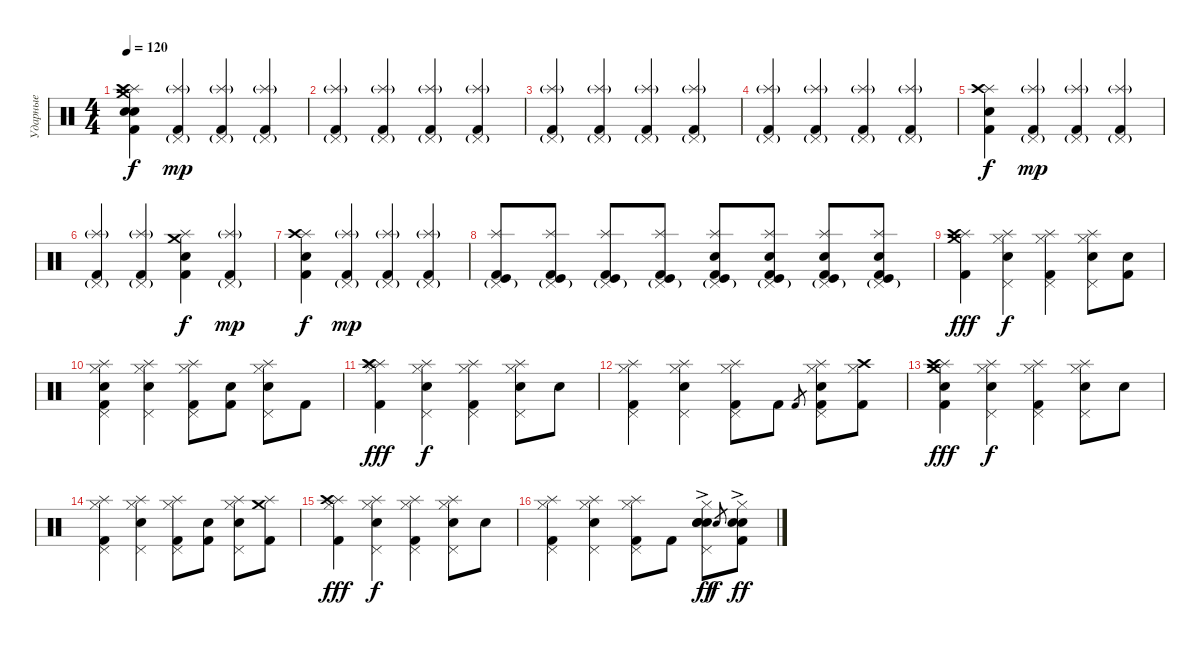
\track ("Ударные" "Ударные") {instrument percussion bank 2}
\staff {score}
\articulation defaults
\ts (4 4)
\tempo 120
\clef neutral
\ks c
("Kick (hit) 2" "Snare (hit)" "Splash (hit)" "Crash high (hit)" "Crash medium (hit)" "Snare (hit)").4{dy f} ("Kick (hit) 2" "Pedal Hi-Hat (hit)"{g} "Splash (hit)"{g}).4{dy mp} ("Kick (hit) 2" "Pedal Hi-Hat (hit)"{g} "Splash (hit)"{g}).4 ("Kick (hit) 2" "Pedal Hi-Hat (hit)"{g} "Splash (hit)"{g}).4 |
("Kick (hit) 2" "Pedal Hi-Hat (hit)"{g} "Splash (hit)"{g}).4 ("Kick (hit) 2" "Pedal Hi-Hat (hit)"{g} "Splash (hit)"{g}).4 ("Kick (hit) 2" "Pedal Hi-Hat (hit)"{g} "Splash (hit)"{g}).4 ("Kick (hit) 2" "Pedal Hi-Hat (hit)"{g} "Splash (hit)"{g}).4 |
("Kick (hit) 2" "Pedal Hi-Hat (hit)"{g} "Splash (hit)"{g}).4 ("Kick (hit) 2" "Pedal Hi-Hat (hit)"{g} "Splash (hit)"{g}).4 ("Kick (hit) 2" "Pedal Hi-Hat (hit)"{g} "Splash (hit)"{g}).4 ("Kick (hit) 2" "Pedal Hi-Hat (hit)"{g} "Splash (hit)"{g}).4 |
("Kick (hit) 2" "Pedal Hi-Hat (hit)"{g} "Splash (hit)"{g}).4 ("Kick (hit) 2" "Pedal Hi-Hat (hit)"{g} "Splash (hit)"{g}).4 ("Kick (hit) 2" "Pedal Hi-Hat (hit)"{g} "Splash (hit)"{g}).4 ("Kick (hit) 2" "Pedal Hi-Hat (hit)"{g} "Splash (hit)"{g}).4 |
("Kick (hit) 2" "Snare (hit) 2" "Splash (hit)" "Crash high (hit)").4{dy f} ("Kick (hit) 2" "Pedal Hi-Hat (hit)"{g} "Splash (hit)"{g}).4{dy mp} ("Kick (hit) 2" "Pedal Hi-Hat (hit)"{g} "Splash (hit)"{g}).4 ("Kick (hit) 2" "Pedal Hi-Hat (hit)"{g} "Splash (hit)"{g}).4 |
("Kick (hit) 2" "Pedal Hi-Hat (hit)"{g} "Splash (hit)"{g}).4 ("Kick (hit) 2" "Pedal Hi-Hat (hit)"{g} "Splash (hit)"{g}).4 ("Kick (hit) 2" "Snare (hit) 2" "Splash (hit)" "Crash medium (hit)").4{dy f} ("Kick (hit) 2" "Pedal Hi-Hat (hit)"{g} "Splash (hit)"{g}).4{dy mp} |
("Kick (hit) 2" "Snare (hit) 2" "Splash (hit)" "Crash high (hit)").4{dy f} ("Kick (hit) 2" "Pedal Hi-Hat (hit)"{g} "Splash (hit)"{g}).4{dy mp} ("Kick (hit) 2" "Pedal Hi-Hat (hit)"{g} "Splash (hit)"{g}).4 ("Kick (hit) 2" "Pedal Hi-Hat (hit)"{g} "Splash (hit)"{g}).4 |
("Kick (hit) 2" "Splash (hit)" "Pedal Hi-Hat (hit)"{g} "Kick (hit)").8 ("Kick (hit) 2" "Splash (hit)" "Pedal Hi-Hat (hit)"{g} "Kick (hit)").8 ("Kick (hit) 2" "Splash (hit)" "Pedal Hi-Hat (hit)"{g} "Kick (hit)").8 ("Kick (hit) 2" "Splash (hit)" "Pedal Hi-Hat (hit)"{g} "Kick (hit)").8 ("Kick (hit) 2" "Snare (hit) 2" "Splash (hit)" "Pedal Hi-Hat (hit)"{g} "Kick (hit)").8 ("Kick (hit) 2" "Snare (hit) 2" "Splash (hit)" "Pedal Hi-Hat (hit)"{g} "Kick (hit)").8 ("Kick (hit) 2" "Snare (hit) 2" "Splash (hit)" "Pedal Hi-Hat (hit)"{g} "Kick (hit)").8 ("Kick (hit) 2" "Snare (hit) 2" "Splash (hit)" "Pedal Hi-Hat (hit)"{g} "Kick (hit)").8 |
("Kick (hit) 2" "Splash (hit)" "Crash medium (hit)" "Crash high (hit)").4{dy fff} ("Snare (hit) 2" "Pedal Hi-Hat (hit)" "Hi-Hat (closed)" "Splash (hit)").4{dy f} ("Kick (hit) 2" "Pedal Hi-Hat (hit)" "Hi-Hat (closed)" "Splash (hit)").4 ("Snare (hit) 2" "Pedal Hi-Hat (hit)" "Hi-Hat (closed)" "Splash (hit)").8 ("Kick (hit) 2" "Snare (hit)").8 |
("Kick (hit) 2" "Snare (hit)" "Pedal Hi-Hat (hit)" "Hi-Hat (closed)" "Splash (hit)").4 ("Snare (hit) 2" "Pedal Hi-Hat (hit)" "Hi-Hat (closed)" "Splash (hit)").4 ("Kick (hit) 2" "Pedal Hi-Hat (hit)" "Hi-Hat (closed)" "Splash (hit)").8 ("Kick (hit) 2" "Snare (hit)").8 ("Snare (hit) 2" "Pedal Hi-Hat (hit)" "Hi-Hat (closed)" "Splash (hit)").8 "Kick (hit) 2".8 |
("Kick (hit) 2" "Splash (hit)" "Crash high (hit)" "Hi-Hat (closed)" "Splash (hit)").4{dy fff} ("Snare (hit) 2" "Pedal Hi-Hat (hit)" "Hi-Hat (closed)" "Splash (hit)").4{dy f} ("Kick (hit) 2" "Pedal Hi-Hat (hit)" "Splash (hit)" "Hi-Hat (closed)").4 ("Snare (hit) 2" "Pedal Hi-Hat (hit)" "Hi-Hat (closed)" "Splash (hit)").8 "Snare (hit)".8 |
("Kick (hit) 2" "Pedal Hi-Hat (hit)" "Hi-Hat (closed)" "Splash (hit)").4 ("Snare (hit) 2" "Pedal Hi-Hat (hit)" "Hi-Hat (closed)" "Splash (hit)").4 ("Kick (hit) 2" "Pedal Hi-Hat (hit)" "Hi-Hat (closed)" "Splash (hit)").8 "Kick (hit) 2".8 "Kick (hit) 2".8{gr} ("Snare (hit) 2" "Kick (hit) 2" "Pedal Hi-Hat (hit)" "Hi-Hat (closed)" "Splash (hit)").8 ("Kick (hit) 2" "Hi-Hat (closed)" "Crash high (hit)").8 |
("Kick (hit) 2" "Splash (hit)" "Crash medium (hit)" "Crash high (hit)" "Snare (hit)").4{dy fff} ("Snare (hit) 2" "Pedal Hi-Hat (hit)" "Hi-Hat (closed)" "Splash (hit)").4{dy f} ("Kick (hit) 2" "Pedal Hi-Hat (hit)" "Hi-Hat (closed)" "Splash (hit)").4 ("Snare (hit) 2" "Pedal Hi-Hat (hit)" "Hi-Hat (closed)" "Splash (hit)").8 "Snare (hit)".8 |
("Kick (hit) 2" "Pedal Hi-Hat (hit)" "Hi-Hat (closed)" "Splash (hit)").4 ("Snare (hit) 2" "Pedal Hi-Hat (hit)" "Hi-Hat (closed)" "Splash (hit)").4 ("Kick (hit) 2" "Pedal Hi-Hat (hit)" "Hi-Hat (closed)" "Splash (hit)").8 ("Kick (hit) 2" "Snare (hit)").8 ("Snare (hit) 2" "Pedal Hi-Hat (hit)" "Hi-Hat (closed)" "Splash (hit)").8 ("Kick (hit) 2" "Crash medium (hit)" "Splash (hit)").8 |
("Kick (hit) 2" "Splash (hit)" "Crash high (hit)" "Hi-Hat (closed)").4{dy fff} ("Snare (hit) 2" "Pedal Hi-Hat (hit)" "Hi-Hat (closed)" "Splash (hit)").4{dy f} ("Kick (hit) 2" "Pedal Hi-Hat (hit)" "Splash (hit)" "Hi-Hat (closed)").4 ("Snare (hit) 2" "Pedal Hi-Hat (hit)" "Hi-Hat (closed)" "Splash (hit)").8 "Snare (hit)".8 |
("Kick (hit) 2" "Pedal Hi-Hat (hit)" "Hi-Hat (closed)" "Splash (hit)").4 ("Snare (hit) 2" "Pedal Hi-Hat (hit)" "Hi-Hat (closed)" "Splash (hit)").4 ("Kick (hit) 2" "Pedal Hi-Hat (hit)" "Hi-Hat (closed)" "Splash (hit)").8 "Kick (hit) 2".8 ("Snare (hit) 2" "Snare (hit)" "Pedal Hi-Hat (hit)" "Hi-Hat (closed)" "Snare (hit) 2"{ac}).8{dy ff} "Snare (hit) 2".8{gr dy f} ("Snare (hit)" "Kick (hit) 2" "Hi-Hat (closed)" "Snare (hit) 2"{ac}).8{dy ff}
